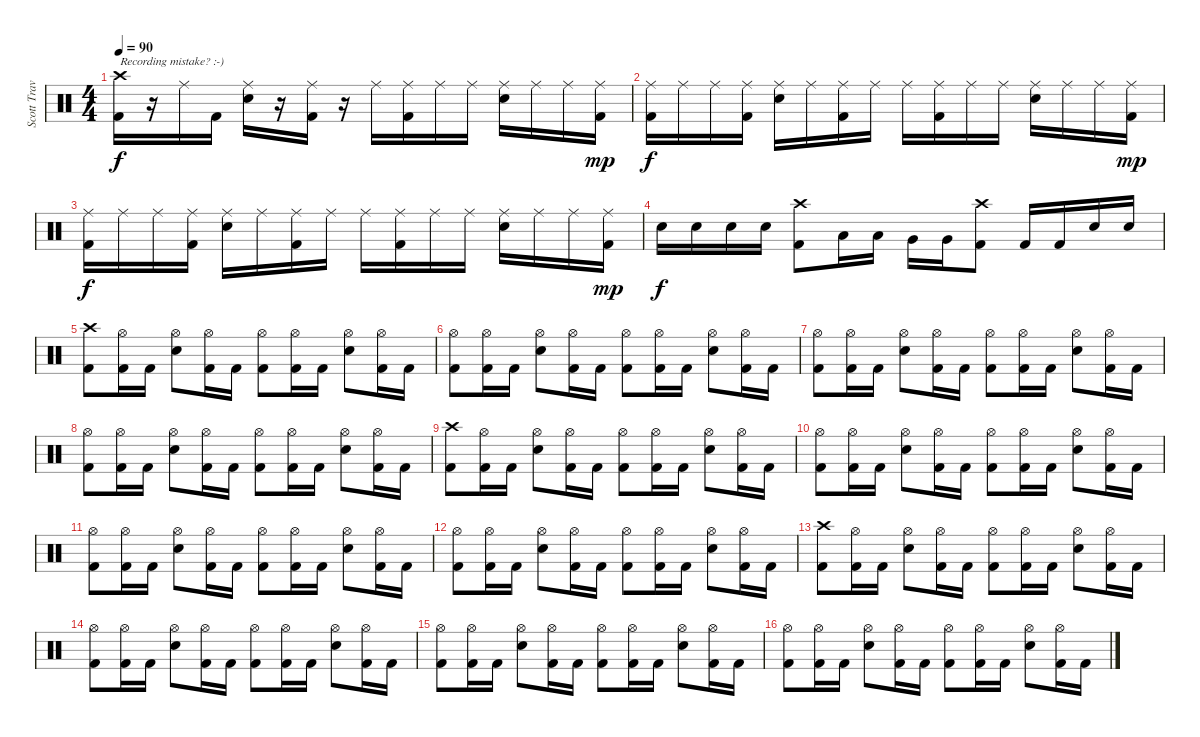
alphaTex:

\track ("Scott Travis" "Scott Trav") {instrument percussion}
\staff {score}
\articulation defaults
\ts (4 4)
\tempo 90
\clef neutral
\ks c
("Kick (hit) 2" "Crash high (hit)").16{txt "Recording mistake? :-)" dy f} r.16 "Ride (middle)".16 "Kick (hit) 2".16 ("Ride (middle)" "Electric Snare (hit)").16 r.16 ("Ride (middle)" "Kick (hit) 2").16 r.16 "Ride (middle)".16 ("Ride (middle)" "Kick (hit) 2").16 "Ride (middle)".16 "Ride (middle)".16 ("Ride (middle)" "Electric Snare (hit)").16 "Ride (middle)".16 "Ride (middle)".16 ("Ride (middle)" "Kick (hit) 2").16{dy mp} |
("Kick (hit) 2" "Ride (middle)").16{dy f} "Ride (middle)".16 "Ride (middle)".16 ("Ride (middle)" "Kick (hit) 2").16 ("Ride (middle)" "Electric Snare (hit)").16 "Ride (middle)".16 ("Ride (middle)" "Kick (hit) 2").16 "Ride (middle)".16 "Ride (middle)".16 ("Ride (middle)" "Kick (hit) 2").16 "Ride (middle)".16 "Ride (middle)".16 ("Ride (middle)" "Electric Snare (hit)").16 "Ride (middle)".16 "Ride (middle)".16 ("Ride (middle)" "Kick (hit) 2").16{dy mp} |
("Kick (hit) 2" "Ride (middle)").16{dy f} "Ride (middle)".16 "Ride (middle)".16 ("Ride (middle)" "Kick (hit) 2").16 ("Ride (middle)" "Electric Snare (hit)").16 "Ride (middle)".16 ("Ride (middle)" "Kick (hit) 2").16 "Ride (middle)".16 "Ride (middle)".16 ("Ride (middle)" "Kick (hit) 2").16 "Ride (middle)".16 "Ride (middle)".16 ("Ride (middle)" "Electric Snare (hit)").16 "Ride (middle)".16 "Ride (middle)".16 ("Ride (middle)" "Kick (hit) 2").16{dy mp} |
"Electric Snare (hit)".16{dy f} "Electric Snare (hit)".16 "Electric Snare (hit)".16 "Electric Snare (hit)".16 ("Kick (hit) 2" "Crash high (hit)").8 "Low Tom (hit)".16 "Low Tom (hit)".16 "Very Low Tom (hit)".16 "Very Low Tom (hit)".16 ("Kick (hit) 2" "Crash high (hit)").8 "Kick (hit) 2".16 "Kick (hit) 2".16 "Electric Snare (hit)".16 "Electric Snare (hit)".16 |
("Kick (hit) 2" "Crash high (hit)").8 ("Kick (hit) 2" "Hi-Hat (open)").16 "Kick (hit) 2".16 ("Electric Snare (hit)" "Hi-Hat (open)").8 ("Kick (hit) 2" "Hi-Hat (open)").16 "Kick (hit) 2".16 ("Kick (hit) 2" "Hi-Hat (open)").8 ("Kick (hit) 2" "Hi-Hat (open)").16 "Kick (hit) 2".16 ("Electric Snare (hit)" "Hi-Hat (open)").8 ("Kick (hit) 2" "Hi-Hat (open)").16 "Kick (hit) 2".16 |
("Kick (hit) 2" "Hi-Hat (open)").8 ("Kick (hit) 2" "Hi-Hat (open)").16 "Kick (hit) 2".16 ("Electric Snare (hit)" "Hi-Hat (open)").8 ("Kick (hit) 2" "Hi-Hat (open)").16 "Kick (hit) 2".16 ("Kick (hit) 2" "Hi-Hat (open)").8 ("Kick (hit) 2" "Hi-Hat (open)").16 "Kick (hit) 2".16 ("Electric Snare (hit)" "Hi-Hat (open)").8 ("Kick (hit) 2" "Hi-Hat (open)").16 "Kick (hit) 2".16 |
("Kick (hit) 2" "Hi-Hat (open)").8 ("Kick (hit) 2" "Hi-Hat (open)").16 "Kick (hit) 2".16 ("Electric Snare (hit)" "Hi-Hat (open)").8 ("Kick (hit) 2" "Hi-Hat (open)").16 "Kick (hit) 2".16 ("Kick (hit) 2" "Hi-Hat (open)").8 ("Kick (hit) 2" "Hi-Hat (open)").16 "Kick (hit) 2".16 ("Electric Snare (hit)" "Hi-Hat (open)").8 ("Kick (hit) 2" "Hi-Hat (open)").16 "Kick (hit) 2".16 |
("Kick (hit) 2" "Hi-Hat (open)").8 ("Kick (hit) 2" "Hi-Hat (open)").16 "Kick (hit) 2".16 ("Electric Snare (hit)" "Hi-Hat (open)").8 ("Kick (hit) 2" "Hi-Hat (open)").16 "Kick (hit) 2".16 ("Kick (hit) 2" "Hi-Hat (open)").8 ("Kick (hit) 2" "Hi-Hat (open)").16 "Kick (hit) 2".16 ("Electric Snare (hit)" "Hi-Hat (open)").8 ("Kick (hit) 2" "Hi-Hat (open)").16 "Kick (hit) 2".16 |
("Kick (hit) 2" "Crash high (hit)").8 ("Kick (hit) 2" "Hi-Hat (open)").16 "Kick (hit) 2".16 ("Electric Snare (hit)" "Hi-Hat (open)").8 ("Kick (hit) 2" "Hi-Hat (open)").16 "Kick (hit) 2".16 ("Kick (hit) 2" "Hi-Hat (open)").8 ("Kick (hit) 2" "Hi-Hat (open)").16 "Kick (hit) 2".16 ("Electric Snare (hit)" "Hi-Hat (open)").8 ("Kick (hit) 2" "Hi-Hat (open)").16 "Kick (hit) 2".16 |
("Kick (hit) 2" "Hi-Hat (open)").8 ("Kick (hit) 2" "Hi-Hat (open)").16 "Kick (hit) 2".16 ("Electric Snare (hit)" "Hi-Hat (open)").8 ("Kick (hit) 2" "Hi-Hat (open)").16 "Kick (hit) 2".16 ("Kick (hit) 2" "Hi-Hat (open)").8 ("Kick (hit) 2" "Hi-Hat (open)").16 "Kick (hit) 2".16 ("Electric Snare (hit)" "Hi-Hat (open)").8 ("Kick (hit) 2" "Hi-Hat (open)").16 "Kick (hit) 2".16 |
("Kick (hit) 2" "Hi-Hat (open)").8 ("Kick (hit) 2" "Hi-Hat (open)").16 "Kick (hit) 2".16 ("Electric Snare (hit)" "Hi-Hat (open)").8 ("Kick (hit) 2" "Hi-Hat (open)").16 "Kick (hit) 2".16 ("Kick (hit) 2" "Hi-Hat (open)").8 ("Kick (hit) 2" "Hi-Hat (open)").16 "Kick (hit) 2".16 ("Electric Snare (hit)" "Hi-Hat (open)").8 ("Kick (hit) 2" "Hi-Hat (open)").16 "Kick (hit) 2".16 |
("Kick (hit) 2" "Hi-Hat (open)").8 ("Kick (hit) 2" "Hi-Hat (open)").16 "Kick (hit) 2".16 ("Electric Snare (hit)" "Hi-Hat (open)").8 ("Kick (hit) 2" "Hi-Hat (open)").16 "Kick (hit) 2".16 ("Kick (hit) 2" "Hi-Hat (open)").8 ("Kick (hit) 2" "Hi-Hat (open)").16 "Kick (hit) 2".16 ("Electric Snare (hit)" "Hi-Hat (open)").8 ("Kick (hit) 2" "Hi-Hat (open)").16 "Kick (hit) 2".16 |
("Kick (hit) 2" "Crash high (hit)").8 ("Kick (hit) 2" "Hi-Hat (open)").16 "Kick (hit) 2".16 ("Electric Snare (hit)" "Hi-Hat (open)").8 ("Kick (hit) 2" "Hi-Hat (open)").16 "Kick (hit) 2".16 ("Kick (hit) 2" "Hi-Hat (open)").8 ("Kick (hit) 2" "Hi-Hat (open)").16 "Kick (hit) 2".16 ("Electric Snare (hit)" "Hi-Hat (open)").8 ("Kick (hit) 2" "Hi-Hat (open)").16 "Kick (hit) 2".16 |
("Kick (hit) 2" "Hi-Hat (open)").8 ("Kick (hit) 2" "Hi-Hat (open)").16 "Kick (hit) 2".16 ("Electric Snare (hit)" "Hi-Hat (open)").8 ("Kick (hit) 2" "Hi-Hat (open)").16 "Kick (hit) 2".16 ("Kick (hit) 2" "Hi-Hat (open)").8 ("Kick (hit) 2" "Hi-Hat (open)").16 "Kick (hit) 2".16 ("Electric Snare (hit)" "Hi-Hat (open)").8 ("Kick (hit) 2" "Hi-Hat (open)").16 "Kick (hit) 2".16 |
("Kick (hit) 2" "Hi-Hat (open)").8 ("Kick (hit) 2" "Hi-Hat (open)").16 "Kick (hit) 2".16 ("Electric Snare (hit)" "Hi-Hat (open)").8 ("Kick (hit) 2" "Hi-Hat (open)").16 "Kick (hit) 2".16 ("Kick (hit) 2" "Hi-Hat (open)").8 ("Kick (hit) 2" "Hi-Hat (open)").16 "Kick (hit) 2".16 ("Electric Snare (hit)" "Hi-Hat (open)").8 ("Kick (hit) 2" "Hi-Hat (open)").16 "Kick (hit) 2".16 |
("Kick (hit) 2" "Hi-Hat (open)").8 ("Kick (hit) 2" "Hi-Hat (open)").16 "Kick (hit) 2".16 ("Electric Snare (hit)" "Hi-Hat (open)").8 ("Kick (hit) 2" "Hi-Hat (open)").16 "Kick (hit) 2".16 ("Kick (hit) 2" "Hi-Hat (open)").8 ("Kick (hit) 2" "Hi-Hat (open)").16 "Kick (hit) 2".16 ("Electric Snare (hit)" "Hi-Hat (open)").8 ("Kick (hit) 2" "Hi-Hat (open)").16 "Kick (hit) 2".16
